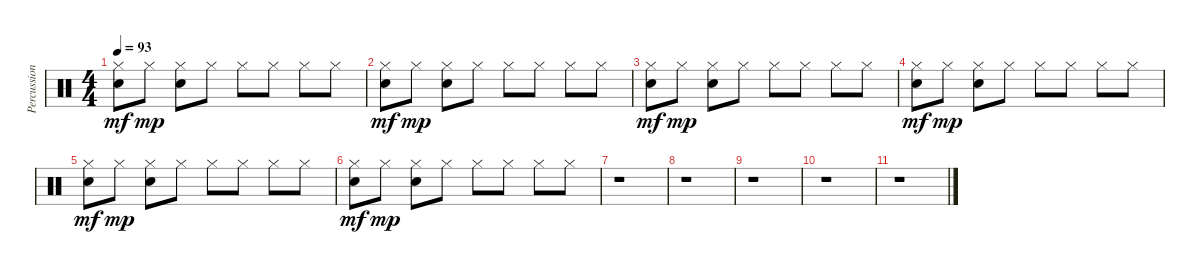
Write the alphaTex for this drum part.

\track ("Percussions" "Percussion") {instrument percussion}
\staff {score}
\articulation defaults
\ts (4 4)
\tempo 93
\clef neutral
\ks c
("Hi-Hat (closed)" "Electric Snare (hit)").8{dy mf} "Hi-Hat (closed)".8{dy mp} ("Hi-Hat (closed)" "Electric Snare (hit)").8 "Hi-Hat (closed)".8 "Hi-Hat (closed)".8 "Hi-Hat (closed)".8 "Hi-Hat (closed)".8 "Hi-Hat (closed)".8 |
("Hi-Hat (closed)" "Electric Snare (hit)").8{dy mf} "Hi-Hat (closed)".8{dy mp} ("Hi-Hat (closed)" "Electric Snare (hit)").8 "Hi-Hat (closed)".8 "Hi-Hat (closed)".8 "Hi-Hat (closed)".8 "Hi-Hat (closed)".8 "Hi-Hat (closed)".8 |
("Hi-Hat (closed)" "Electric Snare (hit)").8{dy mf} "Hi-Hat (closed)".8{dy mp} ("Hi-Hat (closed)" "Electric Snare (hit)").8 "Hi-Hat (closed)".8 "Hi-Hat (closed)".8 "Hi-Hat (closed)".8 "Hi-Hat (closed)".8 "Hi-Hat (closed)".8 |
("Hi-Hat (closed)" "Electric Snare (hit)").8{dy mf} "Hi-Hat (closed)".8{dy mp} ("Hi-Hat (closed)" "Electric Snare (hit)").8 "Hi-Hat (closed)".8 "Hi-Hat (closed)".8 "Hi-Hat (closed)".8 "Hi-Hat (closed)".8 "Hi-Hat (closed)".8 |
("Hi-Hat (closed)" "Electric Snare (hit)").8{dy mf} "Hi-Hat (closed)".8{dy mp} ("Hi-Hat (closed)" "Electric Snare (hit)").8 "Hi-Hat (closed)".8 "Hi-Hat (closed)".8 "Hi-Hat (closed)".8 "Hi-Hat (closed)".8 "Hi-Hat (closed)".8 |
("Hi-Hat (closed)" "Electric Snare (hit)").8{dy mf} "Hi-Hat (closed)".8{dy mp} ("Hi-Hat (closed)" "Electric Snare (hit)").8 "Hi-Hat (closed)".8 "Hi-Hat (closed)".8 "Hi-Hat (closed)".8 "Hi-Hat (closed)".8 "Hi-Hat (closed)".8 |
r.1 |
r.1 |
r.1 |
r.1 |
r.1
